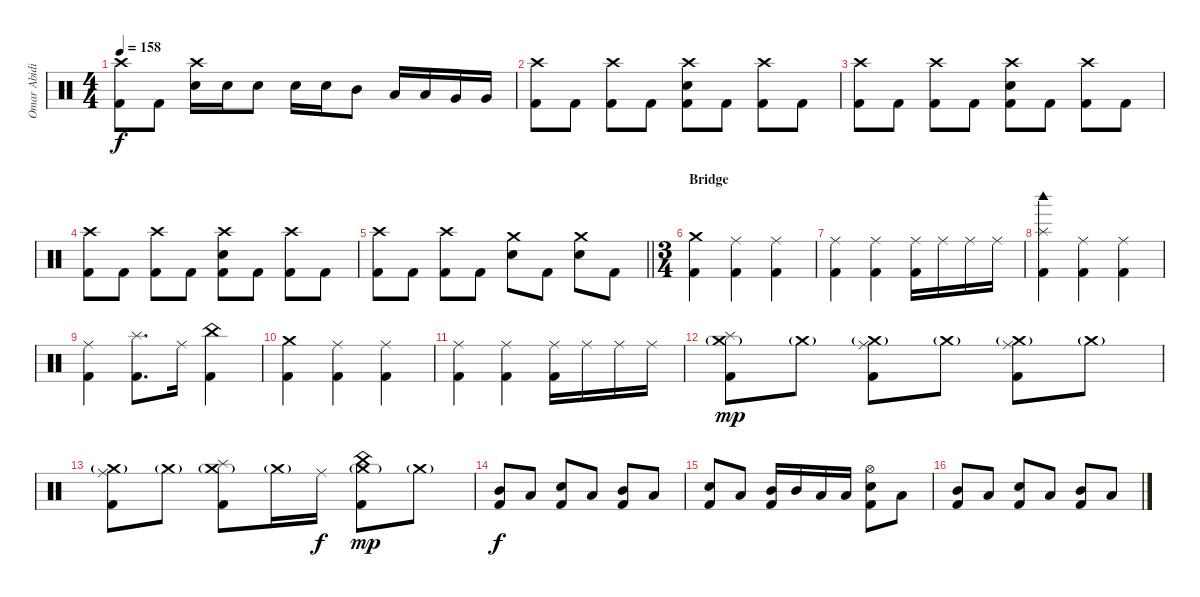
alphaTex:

\track ("Omar Abidi" "Omar Abidi") {instrument percussion}
\staff {score}
\articulation defaults
\ts (4 4)
\tempo 158
\clef neutral
\ks c
("Crash high (hit)" "Kick (hit) 2").8{dy f} "Kick (hit) 2".8 ("Crash high (hit)" "Snare (hit) 2").16 "Snare (hit) 2".16 "Snare (hit) 2".8 "Snare (hit) 2".16 "Snare (hit) 2".16 "Mid Tom (hit)".8 "Low Tom (hit)".16 "Low Tom (hit)".16 "Very Low Tom (hit)".16 "Very Low Tom (hit)".16 |
("Crash high (hit)" "Kick (hit) 2").8 "Kick (hit) 2".8 ("Crash high (hit)" "Kick (hit) 2").8 "Kick (hit) 2".8 ("Crash high (hit)" "Snare (hit) 2" "Kick (hit) 2").8 "Kick (hit) 2".8 ("Crash high (hit)" "Kick (hit) 2").8 "Kick (hit) 2".8 |
("Crash high (hit)" "Kick (hit) 2").8 "Kick (hit) 2".8 ("Crash high (hit)" "Kick (hit) 2").8 "Kick (hit) 2".8 ("Crash high (hit)" "Snare (hit) 2" "Kick (hit) 2").8 "Kick (hit) 2".8 ("Crash high (hit)" "Kick (hit) 2").8 "Kick (hit) 2".8 |
("Crash high (hit)" "Kick (hit) 2").8 "Kick (hit) 2".8 ("Crash high (hit)" "Kick (hit) 2").8 "Kick (hit) 2".8 ("Crash high (hit)" "Snare (hit) 2" "Kick (hit) 2").8 "Kick (hit) 2".8 ("Crash high (hit)" "Kick (hit) 2").8 "Kick (hit) 2".8 |
\barLineRight lightlight
("Crash high (hit)" "Kick (hit) 2").8 "Kick (hit) 2".8 ("Crash high (hit)" "Kick (hit) 2").8 "Kick (hit) 2".8 ("Crash medium (hit)" "Snare (hit) 2").8 "Kick (hit) 2".8 ("Crash medium (hit)" "Snare (hit) 2").8 "Kick (hit) 2".8 |
\ts (3 4)
\section ("" "Bridge")
("Crash medium (hit)" "Kick (hit) 2").4 ("Ride (middle)" "Kick (hit) 2").4 ("Ride (middle)" "Kick (hit) 2").4 |
("Ride (middle)" "Kick (hit) 2").4 ("Ride (middle)" "Kick (hit) 2").4 ("Ride (middle)" "Kick (hit) 2").16 "Ride (middle)".16 "Ride (middle)".16 "Ride (middle)".16 |
("Splash (hit)" "Woodblock high (hit)" "Kick (hit) 2").4 ("Ride (middle)" "Kick (hit) 2").4 ("Ride (middle)" "Kick (hit) 2").4 |
("Ride (middle)" "Kick (hit) 2").4 ("Splash (hit)" "Kick (hit) 2").8{d} "Ride (middle)".16 ("China (hit)" "Kick (hit) 2").4 |
("Crash medium (hit)" "Kick (hit) 2").4 ("Ride (middle)" "Kick (hit) 2").4 ("Ride (middle)" "Kick (hit) 2").4 |
("Ride (middle)" "Kick (hit) 2").4 ("Ride (middle)" "Kick (hit) 2").4 ("Ride (middle)" "Kick (hit) 2").16 "Ride (middle)".16 "Ride (middle)".16 "Ride (middle)".16 |
("Splash (hit)" "Crash medium (hit)"{g} "Kick (hit) 2").8{dy mp} "Crash medium (hit)"{g}.8 ("Ride (middle)" "Crash medium (hit)"{g} "Kick (hit) 2").8 "Crash medium (hit)"{g}.8 ("Ride (middle)" "Crash medium (hit)"{g} "Kick (hit) 2").8 "Crash medium (hit)"{g}.8 |
("Ride (middle)" "Crash medium (hit)"{g} "Kick (hit) 2").8 "Crash medium (hit)"{g}.8 ("Splash (hit)" "Crash medium (hit)"{g} "Kick (hit) 2").8 "Crash medium (hit)"{g}.16 "Ride (middle)".16{dy f} ("China (hit)" "Crash medium (hit)"{g} "Kick (hit) 2").8{dy mp} "Crash medium (hit)"{g}.8 |
("Mid Tom (hit)" "Kick (hit) 2").8{dy f} "Low Tom (hit)".8 ("Snare (hit) 2" "Kick (hit) 2").8 "Low Tom (hit)".8 ("Mid Tom (hit)" "Kick (hit) 2").8 "Low Tom (hit)".8 |
("Snare (hit) 2" "Kick (hit) 2").8 "Low Tom (hit)".8 ("Mid Tom (hit)" "Kick (hit) 2").16 "Mid Tom (hit)".16 "Low Tom (hit)".16 "Low Tom (hit)".16 ("Hi-Hat (open)" "Snare (hit) 2" "Kick (hit) 2").8 "Low Tom (hit)".8 |
("Mid Tom (hit)" "Kick (hit) 2").8 "Low Tom (hit)".8 ("Snare (hit) 2" "Kick (hit) 2").8 "Low Tom (hit)".8 ("Mid Tom (hit)" "Kick (hit) 2").8 "Low Tom (hit)".8
